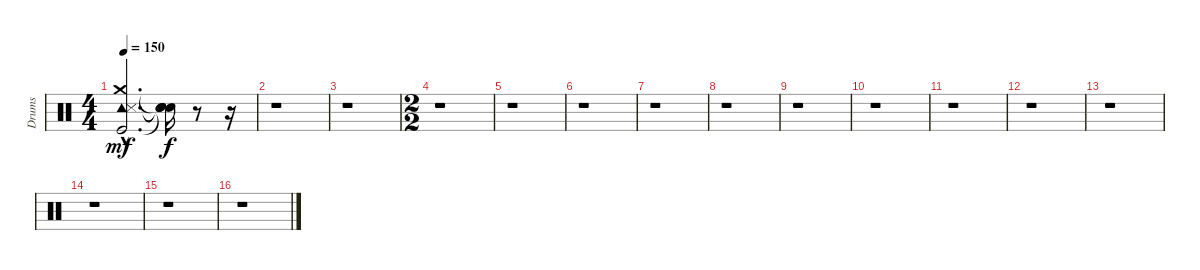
\track ("Drums" "Drums") {instrument percussion}
\staff {score}
\articulation defaults
\ts (4 4)
\tempo 150
\clef neutral
\ks c
("Tambourine (hit)"{hac} "Crash medium (hit)"{hac} "Metronome (hit)"{hac} "Kick (hit)"{hac}).2{d dy mf} ("Snare (hit)"{t} "Snare (hit)"{t} "Snare (hit)"{t} "Snare (hit)"{t}).16{dy f} r.8 r.16 |
r.1 |
r.1 |
\ts (2 2)
r.1 |
r.1 |
r.1 |
r.1 |
r.1 |
r.1 |
r.1 |
r.1 |
r.1 |
r.1 |
r.1 |
r.1 |
r.1
